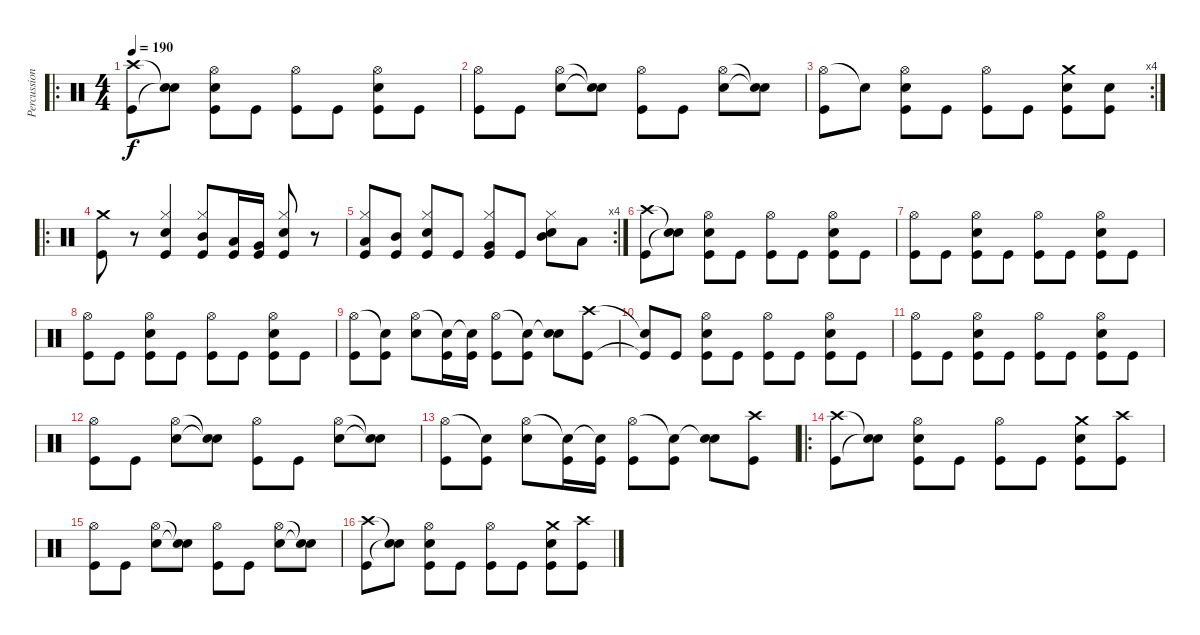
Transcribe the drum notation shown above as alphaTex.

\track ("Percussion" "Percussion") {instrument percussion}
\staff {score}
\articulation defaults
\ro
\ts (4 4)
\tempo 190
\clef neutral
\ks c
("Crash high (hit)" "Kick (hit)").8{dy f} ("Snare (hit)"{t} "Snare (hit)"{t}).8 ("Hi-Hat (open)" "Snare (hit) 2" "Kick (hit)").8 "Kick (hit)".8 ("Hi-Hat (open)" "Kick (hit)").8 "Kick (hit)".8 ("Hi-Hat (open)" "Snare (hit) 2" "Kick (hit)").8 "Kick (hit)".8 |
("Hi-Hat (open)" "Kick (hit)").8 "Kick (hit)".8 ("Hi-Hat (open)" "Snare (hit) 2").8 ("Snare (hit)"{t} "Snare (hit)"{t}).8 ("Hi-Hat (open)" "Kick (hit)").8 "Kick (hit)".8 ("Hi-Hat (open)" "Snare (hit) 2").8 ("Snare (hit)"{t} "Snare (hit)"{t}).8 |
\rc 4
("Hi-Hat (open)" "Kick (hit)").8 "Snare (hit)"{t}.8 ("Hi-Hat (open)" "Snare (hit) 2" "Kick (hit)").8 "Kick (hit)".8 ("Hi-Hat (open)" "Kick (hit)").8 "Kick (hit)".8 ("Crash medium (hit)" "Snare (hit) 2" "Kick (hit)").8 ("Snare (hit) 2" "Kick (hit)").8 |
\ro
("Crash medium (hit)" "Kick (hit)").8 r.8 ("Hi-Hat (closed)" "Electric Snare (hit)" "Kick (hit)").4 ("Hi-Hat (closed)" "Mid Tom (hit)" "Kick (hit)").8 ("Low Tom (hit)" "Kick (hit)").16 ("Very Low Tom (hit)" "Kick (hit)").16 ("Hi-Hat (closed)" "Electric Snare (hit)" "Kick (hit)").8 r.8 |
\rc 4
("Hi-Hat (closed)" "Low Tom (hit)" "Kick (hit)").8 ("Mid Tom (hit)" "Kick (hit)").8 ("Hi-Hat (closed)" "Electric Snare (hit)" "Kick (hit)").8 "Kick (hit)".8 ("Hi-Hat (closed)" "Very Low Tom (hit)" "Kick (hit)").8 "Kick (hit)".8 ("Hi-Hat (closed)" "Electric Snare (hit)" "Mid Tom (hit)").8 "Low Tom (hit)".8 |
("Crash high (hit)" "Kick (hit)").8 ("Snare (hit)"{t} "Snare (hit)"{t}).8 ("Hi-Hat (open)" "Snare (hit) 2" "Kick (hit)").8 "Kick (hit)".8 ("Hi-Hat (open)" "Kick (hit)").8 "Kick (hit)".8 ("Hi-Hat (open)" "Snare (hit) 2" "Kick (hit)").8 "Kick (hit)".8 |
("Hi-Hat (open)" "Kick (hit)").8 "Kick (hit)".8 ("Hi-Hat (open)" "Snare (hit) 2" "Kick (hit)").8 "Kick (hit)".8 ("Hi-Hat (open)" "Kick (hit)").8 "Kick (hit)".8 ("Hi-Hat (open)" "Snare (hit) 2" "Kick (hit)").8 "Kick (hit)".8 |
("Hi-Hat (open)" "Kick (hit)").8 "Kick (hit)".8 ("Hi-Hat (open)" "Snare (hit) 2" "Kick (hit)").8 "Kick (hit)".8 ("Hi-Hat (open)" "Kick (hit)").8 "Kick (hit)".8 ("Hi-Hat (open)" "Snare (hit) 2" "Kick (hit)").8 "Kick (hit)".8 |
("Hi-Hat (open)" "Kick (hit)").8 ("Snare (hit)"{t} "Kick (hit)").8 ("Hi-Hat (open)" "Snare (hit) 2").8 ("Snare (hit)"{t} "Kick (hit)").16 ("Snare (hit)"{t} "Kick (hit)").16 ("Hi-Hat (open)" "Kick (hit)").8 ("Snare (hit)"{t} "Kick (hit)").8 ("Snare (hit)"{t} "Snare (hit) 2").8 ("Crash high (hit)" "Kick (hit)").8 |
("Snare (hit)"{t} "Kick (hit)"{t}).8 "Kick (hit)".8 ("Hi-Hat (open)" "Snare (hit) 2" "Kick (hit)").8 "Kick (hit)".8 ("Hi-Hat (open)" "Kick (hit)").8 "Kick (hit)".8 ("Hi-Hat (open)" "Snare (hit) 2" "Kick (hit)").8 "Kick (hit)".8 |
("Hi-Hat (open)" "Kick (hit)").8 "Kick (hit)".8 ("Hi-Hat (open)" "Snare (hit) 2" "Kick (hit)").8 "Kick (hit)".8 ("Hi-Hat (open)" "Kick (hit)").8 "Kick (hit)".8 ("Hi-Hat (open)" "Snare (hit) 2" "Kick (hit)").8 "Kick (hit)".8 |
("Hi-Hat (open)" "Kick (hit)").8 "Kick (hit)".8 ("Hi-Hat (open)" "Snare (hit) 2").8 ("Snare (hit)"{t} "Snare (hit)"{t}).8 ("Hi-Hat (open)" "Kick (hit)").8 "Kick (hit)".8 ("Hi-Hat (open)" "Snare (hit) 2").8 ("Snare (hit)"{t} "Snare (hit)"{t}).8 |
("Hi-Hat (open)" "Kick (hit)").8 ("Snare (hit)"{t} "Kick (hit)").8 ("Hi-Hat (open)" "Snare (hit) 2").8 ("Snare (hit)"{t} "Kick (hit)").16 ("Snare (hit)"{t} "Kick (hit)").16 ("Hi-Hat (open)" "Kick (hit)").8 ("Snare (hit)"{t} "Kick (hit)").8 ("Snare (hit)"{t} "Snare (hit) 2").8 ("Crash high (hit)" "Kick (hit)").8 |
\ro
("Crash high (hit)" "Kick (hit)").8 ("Snare (hit)"{t} "Snare (hit)"{t}).8 ("Hi-Hat (open)" "Snare (hit) 2" "Kick (hit)").8 "Kick (hit)".8 ("Hi-Hat (open)" "Kick (hit)").8 "Kick (hit)".8 ("Crash medium (hit)" "Snare (hit) 2" "Kick (hit)").8 ("Crash high (hit)" "Kick (hit)").8 |
("Hi-Hat (open)" "Kick (hit)").8 "Kick (hit)".8 ("Hi-Hat (open)" "Snare (hit) 2").8 ("Snare (hit)"{t} "Snare (hit)"{t}).8 ("Hi-Hat (open)" "Kick (hit)").8 "Kick (hit)".8 ("Hi-Hat (open)" "Snare (hit) 2").8 ("Snare (hit)"{t} "Snare (hit)"{t}).8 |
("Crash high (hit)" "Kick (hit)").8 ("Snare (hit)"{t} "Snare (hit)"{t}).8 ("Hi-Hat (open)" "Snare (hit) 2" "Kick (hit)").8 "Kick (hit)".8 ("Hi-Hat (open)" "Kick (hit)").8 "Kick (hit)".8 ("Crash medium (hit)" "Snare (hit) 2" "Kick (hit)").8 ("Crash high (hit)" "Kick (hit)").8
